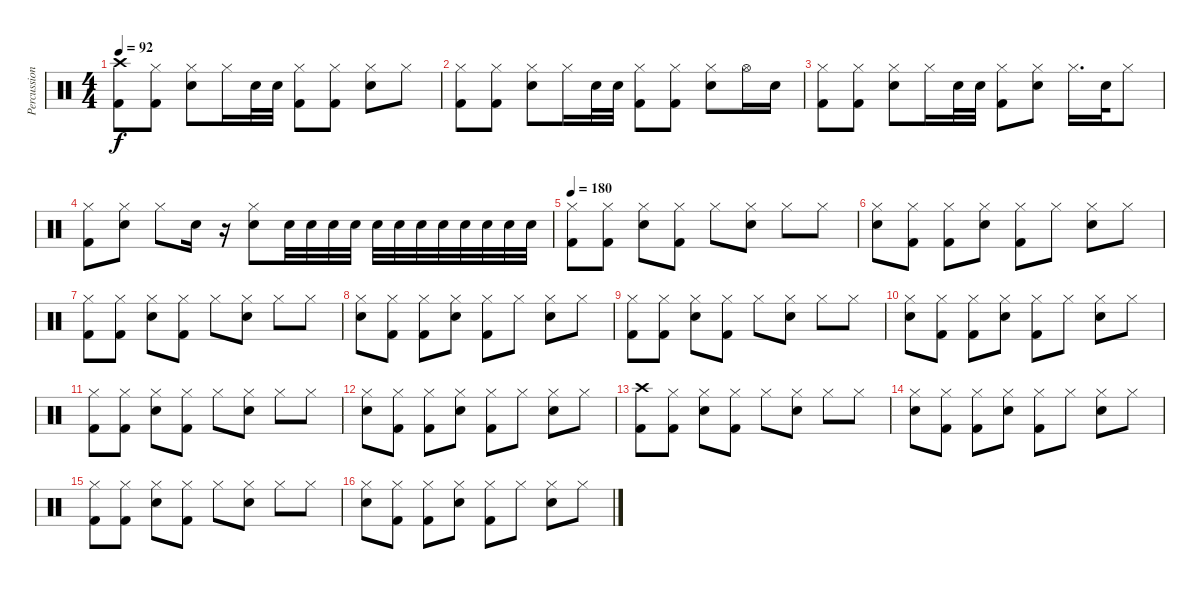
\track ("Percussion" "Percussion") {instrument percussion}
\staff {score}
\articulation defaults
\ts (4 4)
\tempo 92
\clef neutral
\ks c
("Crash high (hit)" "Kick (hit) 2").8{dy f} ("Hi-Hat (closed)" "Kick (hit) 2").8 ("Hi-Hat (closed)" "Electric Snare (hit)").8 "Hi-Hat (closed)".16 "Electric Snare (hit)".32 "Electric Snare (hit)".32 ("Hi-Hat (closed)" "Kick (hit) 2").8 ("Hi-Hat (closed)" "Kick (hit) 2").8 ("Hi-Hat (closed)" "Electric Snare (hit)").8 "Hi-Hat (closed)".8 |
("Hi-Hat (closed)" "Kick (hit) 2").8 ("Hi-Hat (closed)" "Kick (hit) 2").8 ("Hi-Hat (closed)" "Electric Snare (hit)").8 "Hi-Hat (closed)".16 "Electric Snare (hit)".32 "Electric Snare (hit)".32 ("Hi-Hat (closed)" "Kick (hit) 2").8 ("Hi-Hat (closed)" "Kick (hit) 2").8 ("Hi-Hat (closed)" "Electric Snare (hit)").8 "Hi-Hat (open)".16 "Electric Snare (hit)".16 |
("Hi-Hat (closed)" "Kick (hit) 2").8 ("Hi-Hat (closed)" "Kick (hit) 2").8 ("Hi-Hat (closed)" "Electric Snare (hit)").8 "Hi-Hat (closed)".16 "Electric Snare (hit)".32 "Electric Snare (hit)".32 ("Hi-Hat (closed)" "Kick (hit) 2").8 ("Hi-Hat (closed)" "Electric Snare (hit)").8 "Hi-Hat (closed)".16{d} "Electric Snare (hit)".32 "Hi-Hat (closed)".8 |
("Hi-Hat (closed)" "Kick (hit) 2").8 ("Hi-Hat (closed)" "Electric Snare (hit)").8 "Hi-Hat (closed)".8 "Electric Snare (hit)".16 r.16 ("Hi-Hat (closed)" "Electric Snare (hit)").8 "Electric Snare (hit)".32 "Electric Snare (hit)".32 "Electric Snare (hit)".32 "Electric Snare (hit)".32 "Electric Snare (hit)".32 "Electric Snare (hit)".32 "Electric Snare (hit)".32 "Electric Snare (hit)".32 "Electric Snare (hit)".32 "Electric Snare (hit)".32 "Electric Snare (hit)".32 "Electric Snare (hit)".32 |
\tempo 180
("Hi-Hat (closed)" "Kick (hit) 2").8 ("Hi-Hat (closed)" "Kick (hit) 2").8 ("Hi-Hat (closed)" "Electric Snare (hit)").8 ("Hi-Hat (closed)" "Kick (hit) 2").8 "Hi-Hat (closed)".8 ("Hi-Hat (closed)" "Electric Snare (hit)").8 "Hi-Hat (closed)".8 "Hi-Hat (closed)".8 |
("Hi-Hat (closed)" "Electric Snare (hit)").8 ("Hi-Hat (closed)" "Kick (hit) 2").8 ("Hi-Hat (closed)" "Kick (hit) 2").8 ("Hi-Hat (closed)" "Electric Snare (hit)").8 ("Hi-Hat (closed)" "Kick (hit) 2").8 "Hi-Hat (closed)".8 ("Hi-Hat (closed)" "Electric Snare (hit)").8 "Hi-Hat (closed)".8 |
("Hi-Hat (closed)" "Kick (hit) 2").8 ("Hi-Hat (closed)" "Kick (hit) 2").8 ("Hi-Hat (closed)" "Electric Snare (hit)").8 ("Hi-Hat (closed)" "Kick (hit) 2").8 "Hi-Hat (closed)".8 ("Hi-Hat (closed)" "Electric Snare (hit)").8 "Hi-Hat (closed)".8 "Hi-Hat (closed)".8 |
("Hi-Hat (closed)" "Electric Snare (hit)").8 ("Hi-Hat (closed)" "Kick (hit) 2").8 ("Hi-Hat (closed)" "Kick (hit) 2").8 ("Hi-Hat (closed)" "Electric Snare (hit)").8 ("Hi-Hat (closed)" "Kick (hit) 2").8 "Hi-Hat (closed)".8 ("Hi-Hat (closed)" "Electric Snare (hit)").8 "Hi-Hat (closed)".8 |
("Hi-Hat (closed)" "Kick (hit) 2").8 ("Hi-Hat (closed)" "Kick (hit) 2").8 ("Hi-Hat (closed)" "Electric Snare (hit)").8 ("Hi-Hat (closed)" "Kick (hit) 2").8 "Hi-Hat (closed)".8 ("Hi-Hat (closed)" "Electric Snare (hit)").8 "Hi-Hat (closed)".8 "Hi-Hat (closed)".8 |
("Hi-Hat (closed)" "Electric Snare (hit)").8 ("Hi-Hat (closed)" "Kick (hit) 2").8 ("Hi-Hat (closed)" "Kick (hit) 2").8 ("Hi-Hat (closed)" "Electric Snare (hit)").8 ("Hi-Hat (closed)" "Kick (hit) 2").8 "Hi-Hat (closed)".8 ("Hi-Hat (closed)" "Electric Snare (hit)").8 "Hi-Hat (closed)".8 |
("Hi-Hat (closed)" "Kick (hit) 2").8 ("Hi-Hat (closed)" "Kick (hit) 2").8 ("Hi-Hat (closed)" "Electric Snare (hit)").8 ("Hi-Hat (closed)" "Kick (hit) 2").8 "Hi-Hat (closed)".8 ("Hi-Hat (closed)" "Electric Snare (hit)").8 "Hi-Hat (closed)".8 "Hi-Hat (closed)".8 |
("Hi-Hat (closed)" "Electric Snare (hit)").8 ("Hi-Hat (closed)" "Kick (hit) 2").8 ("Hi-Hat (closed)" "Kick (hit) 2").8 ("Hi-Hat (closed)" "Electric Snare (hit)").8 ("Hi-Hat (closed)" "Kick (hit) 2").8 "Hi-Hat (closed)".8 ("Hi-Hat (closed)" "Electric Snare (hit)").8 "Hi-Hat (closed)".8 |
("Crash high (hit)" "Kick (hit) 2").8 ("Hi-Hat (closed)" "Kick (hit) 2").8 ("Hi-Hat (closed)" "Electric Snare (hit)").8 ("Hi-Hat (closed)" "Kick (hit) 2").8 "Hi-Hat (closed)".8 ("Hi-Hat (closed)" "Electric Snare (hit)").8 "Hi-Hat (closed)".8 "Hi-Hat (closed)".8 |
("Hi-Hat (closed)" "Electric Snare (hit)").8 ("Hi-Hat (closed)" "Kick (hit) 2").8 ("Hi-Hat (closed)" "Kick (hit) 2").8 ("Hi-Hat (closed)" "Electric Snare (hit)").8 ("Hi-Hat (closed)" "Kick (hit) 2").8 "Hi-Hat (closed)".8 ("Hi-Hat (closed)" "Electric Snare (hit)").8 "Hi-Hat (closed)".8 |
("Hi-Hat (closed)" "Kick (hit) 2").8 ("Hi-Hat (closed)" "Kick (hit) 2").8 ("Hi-Hat (closed)" "Electric Snare (hit)").8 ("Hi-Hat (closed)" "Kick (hit) 2").8 "Hi-Hat (closed)".8 ("Hi-Hat (closed)" "Electric Snare (hit)").8 "Hi-Hat (closed)".8 "Hi-Hat (closed)".8 |
("Hi-Hat (closed)" "Electric Snare (hit)").8 ("Hi-Hat (closed)" "Kick (hit) 2").8 ("Hi-Hat (closed)" "Kick (hit) 2").8 ("Hi-Hat (closed)" "Electric Snare (hit)").8 ("Hi-Hat (closed)" "Kick (hit) 2").8 "Hi-Hat (closed)".8 ("Hi-Hat (closed)" "Electric Snare (hit)").8 "Hi-Hat (closed)".8
